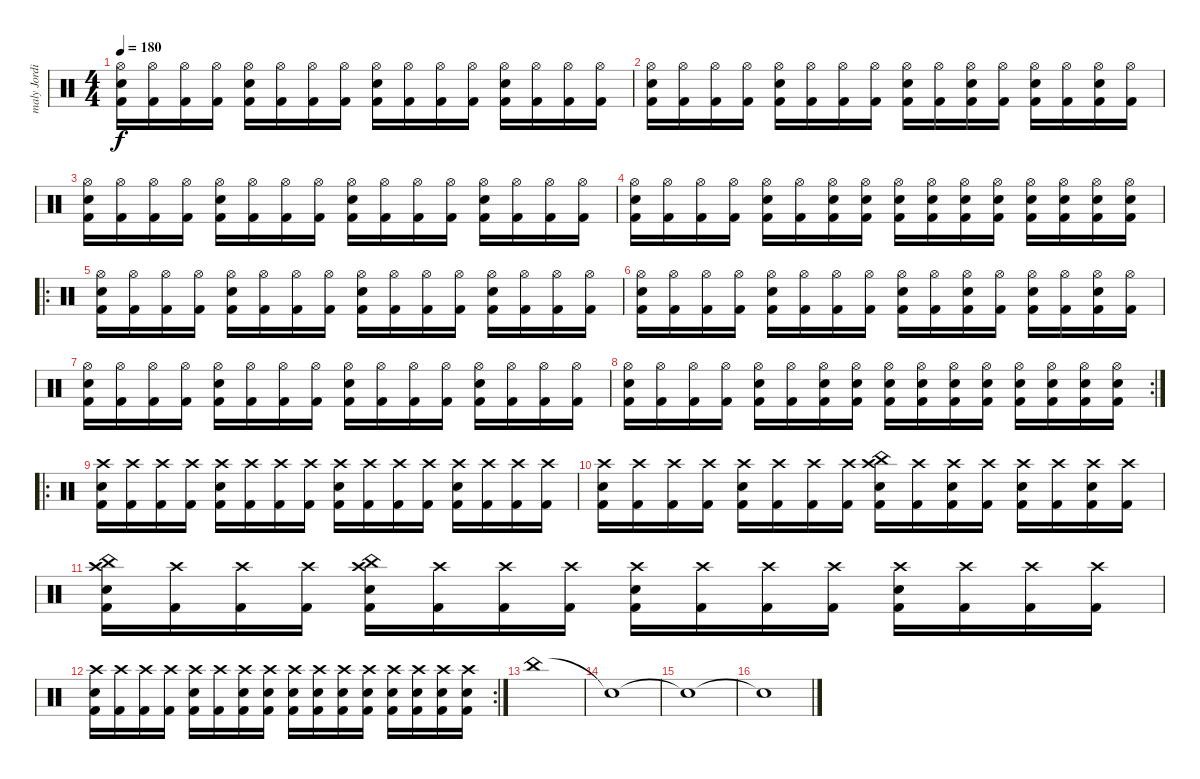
\track ("maly Jordison " "maly Jordi") {instrument percussion}
\staff {score}
\articulation defaults
\ts (4 4)
\tempo 180
\clef neutral
\ks c
("Hi-Hat (open)" "Electric Snare (hit)" "Kick (hit) 2").16{dy f} ("Hi-Hat (open)" "Kick (hit) 2").16 ("Hi-Hat (open)" "Kick (hit) 2").16 ("Hi-Hat (open)" "Kick (hit) 2").16 ("Hi-Hat (open)" "Electric Snare (hit)" "Kick (hit) 2").16 ("Hi-Hat (open)" "Kick (hit) 2").16 ("Hi-Hat (open)" "Kick (hit) 2").16 ("Hi-Hat (open)" "Kick (hit) 2").16 ("Hi-Hat (open)" "Electric Snare (hit)" "Kick (hit) 2").16 ("Hi-Hat (open)" "Kick (hit) 2").16 ("Hi-Hat (open)" "Kick (hit) 2").16 ("Hi-Hat (open)" "Kick (hit) 2").16 ("Hi-Hat (open)" "Electric Snare (hit)" "Kick (hit) 2").16 ("Hi-Hat (open)" "Kick (hit) 2").16 ("Hi-Hat (open)" "Kick (hit) 2").16 ("Hi-Hat (open)" "Kick (hit) 2").16 |
("Hi-Hat (open)" "Electric Snare (hit)" "Kick (hit) 2").16 ("Hi-Hat (open)" "Kick (hit) 2").16 ("Hi-Hat (open)" "Kick (hit) 2").16 ("Hi-Hat (open)" "Kick (hit) 2").16 ("Hi-Hat (open)" "Electric Snare (hit)" "Kick (hit) 2").16 ("Hi-Hat (open)" "Kick (hit) 2").16 ("Hi-Hat (open)" "Kick (hit) 2").16 ("Hi-Hat (open)" "Kick (hit) 2").16 ("Hi-Hat (open)" "Electric Snare (hit)" "Kick (hit) 2").16 ("Hi-Hat (open)" "Kick (hit) 2").16 ("Hi-Hat (open)" "Electric Snare (hit)" "Kick (hit) 2").16 ("Hi-Hat (open)" "Kick (hit) 2").16 ("Hi-Hat (open)" "Electric Snare (hit)" "Kick (hit) 2").16 ("Hi-Hat (open)" "Kick (hit) 2").16 ("Hi-Hat (open)" "Electric Snare (hit)" "Kick (hit) 2").16 ("Hi-Hat (open)" "Kick (hit) 2").16 |
("Hi-Hat (open)" "Electric Snare (hit)" "Kick (hit) 2").16 ("Hi-Hat (open)" "Kick (hit) 2").16 ("Hi-Hat (open)" "Kick (hit) 2").16 ("Hi-Hat (open)" "Kick (hit) 2").16 ("Hi-Hat (open)" "Electric Snare (hit)" "Kick (hit) 2").16 ("Hi-Hat (open)" "Kick (hit) 2").16 ("Hi-Hat (open)" "Kick (hit) 2").16 ("Hi-Hat (open)" "Kick (hit) 2").16 ("Hi-Hat (open)" "Electric Snare (hit)" "Kick (hit) 2").16 ("Hi-Hat (open)" "Kick (hit) 2").16 ("Hi-Hat (open)" "Kick (hit) 2").16 ("Hi-Hat (open)" "Kick (hit) 2").16 ("Hi-Hat (open)" "Electric Snare (hit)" "Kick (hit) 2").16 ("Hi-Hat (open)" "Kick (hit) 2").16 ("Hi-Hat (open)" "Kick (hit) 2").16 ("Hi-Hat (open)" "Kick (hit) 2").16 |
("Hi-Hat (open)" "Electric Snare (hit)" "Kick (hit) 2").16 ("Hi-Hat (open)" "Kick (hit) 2").16 ("Hi-Hat (open)" "Kick (hit) 2").16 ("Hi-Hat (open)" "Kick (hit) 2").16 ("Hi-Hat (open)" "Electric Snare (hit)" "Kick (hit) 2").16 ("Hi-Hat (open)" "Kick (hit) 2").16 ("Hi-Hat (open)" "Electric Snare (hit)" "Kick (hit) 2").16 ("Hi-Hat (open)" "Electric Snare (hit)" "Kick (hit) 2").16 ("Hi-Hat (open)" "Electric Snare (hit)" "Kick (hit) 2").16 ("Hi-Hat (open)" "Electric Snare (hit)" "Kick (hit) 2").16 ("Hi-Hat (open)" "Electric Snare (hit)" "Kick (hit) 2").16 ("Hi-Hat (open)" "Electric Snare (hit)" "Kick (hit) 2").16 ("Hi-Hat (open)" "Electric Snare (hit)" "Kick (hit) 2").16 ("Hi-Hat (open)" "Electric Snare (hit)" "Kick (hit) 2").16 ("Hi-Hat (open)" "Electric Snare (hit)" "Kick (hit) 2").16 ("Hi-Hat (open)" "Electric Snare (hit)" "Kick (hit) 2").16 |
\ro
("Hi-Hat (open)" "Electric Snare (hit)" "Kick (hit) 2").16 ("Hi-Hat (open)" "Kick (hit) 2").16 ("Hi-Hat (open)" "Kick (hit) 2").16 ("Hi-Hat (open)" "Kick (hit) 2").16 ("Hi-Hat (open)" "Electric Snare (hit)" "Kick (hit) 2").16 ("Hi-Hat (open)" "Kick (hit) 2").16 ("Hi-Hat (open)" "Kick (hit) 2").16 ("Hi-Hat (open)" "Kick (hit) 2").16 ("Hi-Hat (open)" "Electric Snare (hit)" "Kick (hit) 2").16 ("Hi-Hat (open)" "Kick (hit) 2").16 ("Hi-Hat (open)" "Kick (hit) 2").16 ("Hi-Hat (open)" "Kick (hit) 2").16 ("Hi-Hat (open)" "Electric Snare (hit)" "Kick (hit) 2").16 ("Hi-Hat (open)" "Kick (hit) 2").16 ("Hi-Hat (open)" "Kick (hit) 2").16 ("Hi-Hat (open)" "Kick (hit) 2").16 |
("Hi-Hat (open)" "Electric Snare (hit)" "Kick (hit) 2").16 ("Hi-Hat (open)" "Kick (hit) 2").16 ("Hi-Hat (open)" "Kick (hit) 2").16 ("Hi-Hat (open)" "Kick (hit) 2").16 ("Hi-Hat (open)" "Electric Snare (hit)" "Kick (hit) 2").16 ("Hi-Hat (open)" "Kick (hit) 2").16 ("Hi-Hat (open)" "Kick (hit) 2").16 ("Hi-Hat (open)" "Kick (hit) 2").16 ("Hi-Hat (open)" "Electric Snare (hit)" "Kick (hit) 2").16 ("Hi-Hat (open)" "Kick (hit) 2").16 ("Hi-Hat (open)" "Electric Snare (hit)" "Kick (hit) 2").16 ("Hi-Hat (open)" "Kick (hit) 2").16 ("Hi-Hat (open)" "Electric Snare (hit)" "Kick (hit) 2").16 ("Hi-Hat (open)" "Kick (hit) 2").16 ("Hi-Hat (open)" "Electric Snare (hit)" "Kick (hit) 2").16 ("Hi-Hat (open)" "Kick (hit) 2").16 |
("Hi-Hat (open)" "Electric Snare (hit)" "Kick (hit) 2").16 ("Hi-Hat (open)" "Kick (hit) 2").16 ("Hi-Hat (open)" "Kick (hit) 2").16 ("Hi-Hat (open)" "Kick (hit) 2").16 ("Hi-Hat (open)" "Electric Snare (hit)" "Kick (hit) 2").16 ("Hi-Hat (open)" "Kick (hit) 2").16 ("Hi-Hat (open)" "Kick (hit) 2").16 ("Hi-Hat (open)" "Kick (hit) 2").16 ("Hi-Hat (open)" "Electric Snare (hit)" "Kick (hit) 2").16 ("Hi-Hat (open)" "Kick (hit) 2").16 ("Hi-Hat (open)" "Kick (hit) 2").16 ("Hi-Hat (open)" "Kick (hit) 2").16 ("Hi-Hat (open)" "Electric Snare (hit)" "Kick (hit) 2").16 ("Hi-Hat (open)" "Kick (hit) 2").16 ("Hi-Hat (open)" "Kick (hit) 2").16 ("Hi-Hat (open)" "Kick (hit) 2").16 |
\rc 2
("Hi-Hat (open)" "Electric Snare (hit)" "Kick (hit) 2").16 ("Hi-Hat (open)" "Kick (hit) 2").16 ("Hi-Hat (open)" "Kick (hit) 2").16 ("Hi-Hat (open)" "Kick (hit) 2").16 ("Hi-Hat (open)" "Electric Snare (hit)" "Kick (hit) 2").16 ("Hi-Hat (open)" "Kick (hit) 2").16 ("Hi-Hat (open)" "Electric Snare (hit)" "Kick (hit) 2").16 ("Hi-Hat (open)" "Electric Snare (hit)" "Kick (hit) 2").16 ("Hi-Hat (open)" "Electric Snare (hit)" "Kick (hit) 2").16 ("Hi-Hat (open)" "Electric Snare (hit)" "Kick (hit) 2").16 ("Hi-Hat (open)" "Electric Snare (hit)" "Kick (hit) 2").16 ("Hi-Hat (open)" "Electric Snare (hit)" "Kick (hit) 2").16 ("Hi-Hat (open)" "Electric Snare (hit)" "Kick (hit) 2").16 ("Hi-Hat (open)" "Electric Snare (hit)" "Kick (hit) 2").16 ("Hi-Hat (open)" "Electric Snare (hit)" "Kick (hit) 2").16 ("Hi-Hat (open)" "Electric Snare (hit)" "Kick (hit) 2").16 |
\ro
("Crash high (hit)" "Electric Snare (hit)" "Kick (hit) 2").16 ("Crash high (hit)" "Kick (hit) 2").16 ("Crash high (hit)" "Kick (hit) 2").16 ("Crash high (hit)" "Kick (hit) 2").16 ("Crash high (hit)" "Electric Snare (hit)" "Kick (hit) 2").16 ("Crash high (hit)" "Kick (hit) 2").16 ("Crash high (hit)" "Kick (hit) 2").16 ("Crash high (hit)" "Kick (hit) 2").16 ("Crash high (hit)" "Electric Snare (hit)" "Kick (hit) 2").16 ("Crash high (hit)" "Kick (hit) 2").16 ("Crash high (hit)" "Kick (hit) 2").16 ("Crash high (hit)" "Kick (hit) 2").16 ("Crash high (hit)" "Electric Snare (hit)" "Kick (hit) 2").16 ("Crash high (hit)" "Kick (hit) 2").16 ("Crash high (hit)" "Kick (hit) 2").16 ("Crash high (hit)" "Kick (hit) 2").16 |
("Crash high (hit)" "Electric Snare (hit)" "Kick (hit) 2").16 ("Crash high (hit)" "Kick (hit) 2").16 ("Crash high (hit)" "Kick (hit) 2").16 ("Crash high (hit)" "Kick (hit) 2").16 ("Crash high (hit)" "Electric Snare (hit)" "Kick (hit) 2").16 ("Crash high (hit)" "Kick (hit) 2").16 ("Crash high (hit)" "Kick (hit) 2").16 ("Crash high (hit)" "Kick (hit) 2").16 ("Crash high (hit)" "China (hit)" "Electric Snare (hit)" "Kick (hit) 2").16 ("Crash high (hit)" "Kick (hit) 2").16 ("Crash high (hit)" "Electric Snare (hit)" "Kick (hit) 2").16 ("Crash high (hit)" "Kick (hit) 2").16 ("Crash high (hit)" "Electric Snare (hit)" "Kick (hit) 2").16 ("Crash high (hit)" "Kick (hit) 2").16 ("Crash high (hit)" "Electric Snare (hit)" "Kick (hit) 2").16 ("Crash high (hit)" "Kick (hit) 2").16 |
("Crash high (hit)" "China (hit)" "Electric Snare (hit)" "Kick (hit) 2").16 ("Crash high (hit)" "Kick (hit) 2").16 ("Crash high (hit)" "Kick (hit) 2").16 ("Crash high (hit)" "Kick (hit) 2").16 ("Crash high (hit)" "China (hit)" "Electric Snare (hit)" "Kick (hit) 2").16 ("Crash high (hit)" "Kick (hit) 2").16 ("Crash high (hit)" "Kick (hit) 2").16 ("Crash high (hit)" "Kick (hit) 2").16 ("Crash high (hit)" "Electric Snare (hit)" "Kick (hit) 2").16 ("Crash high (hit)" "Kick (hit) 2").16 ("Crash high (hit)" "Kick (hit) 2").16 ("Crash high (hit)" "Kick (hit) 2").16 ("Crash high (hit)" "Electric Snare (hit)" "Kick (hit) 2").16 ("Crash high (hit)" "Kick (hit) 2").16 ("Crash high (hit)" "Kick (hit) 2").16 ("Crash high (hit)" "Kick (hit) 2").16 |
\rc 2
("Crash high (hit)" "Electric Snare (hit)" "Kick (hit) 2").16 ("Crash high (hit)" "Kick (hit) 2").16 ("Crash high (hit)" "Kick (hit) 2").16 ("Crash high (hit)" "Kick (hit) 2").16 ("Crash high (hit)" "Electric Snare (hit)" "Kick (hit) 2").16 ("Crash high (hit)" "Kick (hit) 2").16 ("Crash high (hit)" "Electric Snare (hit)" "Kick (hit) 2").16 ("Crash high (hit)" "Electric Snare (hit)" "Kick (hit) 2").16 ("Crash high (hit)" "Electric Snare (hit)" "Kick (hit) 2").16 ("Crash high (hit)" "Electric Snare (hit)" "Kick (hit) 2").16 ("Crash high (hit)" "Electric Snare (hit)" "Kick (hit) 2").16 ("Crash high (hit)" "Electric Snare (hit)" "Kick (hit) 2").16 ("Crash high (hit)" "Electric Snare (hit)" "Kick (hit) 2").16 ("Crash high (hit)" "Electric Snare (hit)" "Kick (hit) 2").16 ("Crash high (hit)" "Electric Snare (hit)" "Kick (hit) 2").16 ("Crash high (hit)" "Electric Snare (hit)" "Kick (hit) 2").16 |
"China (hit)".1 |
"Snare (hit)"{t}.1 |
"Snare (hit)"{t}.1 |
"Snare (hit)"{t}.1
